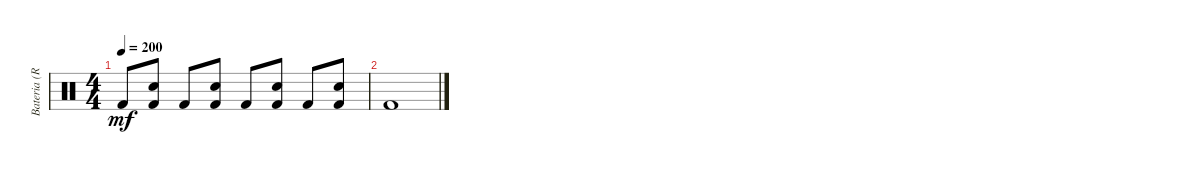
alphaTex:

\track ("Bateria (Ray)" "Bateria (R") {instrument percussion}
\staff {score}
\articulation defaults
\ts (4 4)
\tempo 200
\clef neutral
\ks c "Kick (hit) 2".8{dy mf}
("Electric Snare (hit)" "Kick (hit) 2").8 "Kick (hit) 2".8 ("Electric Snare (hit)" "Kick (hit) 2").8 "Kick (hit) 2".8 ("Electric Snare (hit)" "Kick (hit) 2").8 "Kick (hit) 2".8 ("Electric Snare (hit)" "Kick (hit) 2").8 |
"Kick (hit) 2".1
